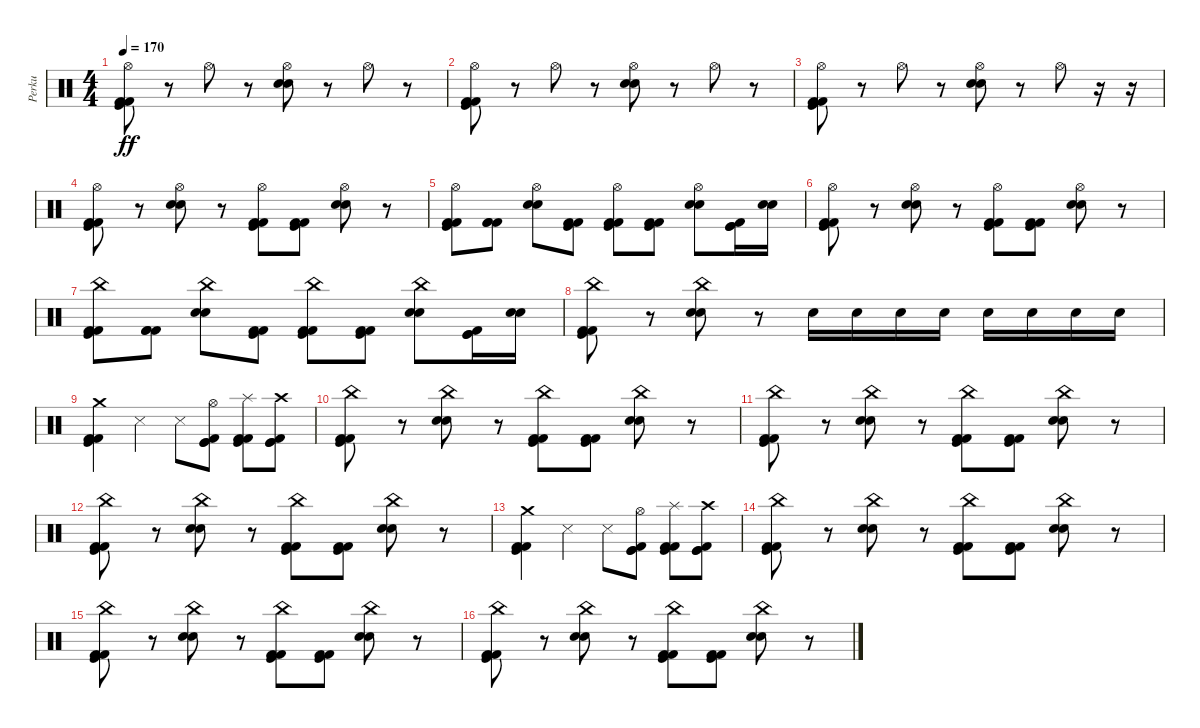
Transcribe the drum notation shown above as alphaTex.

\track ("Perku" "Perku") {instrument percussion}
\staff {score}
\articulation defaults
\ts (4 4)
\tempo 170
\clef neutral
\ks c
("Hi-Hat (open)" "Kick (hit) 2" "Kick (hit) 2" "Kick (hit)").8{dy ff} r.8 "Hi-Hat (open)".8 r.8 ("Hi-Hat (open)" "Electric Snare (hit)" "Electric Snare (hit)").8 r.8 "Hi-Hat (open)".8 r.8 |
("Hi-Hat (open)" "Kick (hit) 2" "Kick (hit) 2" "Kick (hit)").8 r.8 "Hi-Hat (open)".8 r.8 ("Hi-Hat (open)" "Electric Snare (hit)" "Electric Snare (hit)").8 r.8 "Hi-Hat (open)".8 r.8 |
("Hi-Hat (open)" "Kick (hit) 2" "Kick (hit) 2" "Kick (hit)").8 r.8 "Hi-Hat (open)".8 r.8 ("Hi-Hat (open)" "Electric Snare (hit)" "Electric Snare (hit)").8 r.8 "Hi-Hat (open)".8 r.16 r.16 |
("Hi-Hat (open)" "Kick (hit) 2" "Kick (hit) 2" "Kick (hit)").8 r.8 ("Hi-Hat (open)" "Electric Snare (hit)" "Electric Snare (hit)").8 r.8 ("Hi-Hat (open)" "Kick (hit) 2" "Kick (hit) 2" "Kick (hit)").8 ("Kick (hit)" "Kick (hit) 2" "Kick (hit) 2").8 ("Hi-Hat (open)" "Electric Snare (hit)" "Electric Snare (hit)").8 r.8 |
("Hi-Hat (open)" "Kick (hit) 2" "Kick (hit) 2" "Kick (hit)").8 ("Kick (hit) 2" "Kick (hit) 2" "Kick (hit) 2").8 ("Hi-Hat (open)" "Electric Snare (hit)" "Electric Snare (hit)").8 ("Kick (hit) 2" "Kick (hit) 2" "Kick (hit)").8 ("Hi-Hat (open)" "Kick (hit) 2" "Kick (hit) 2" "Kick (hit)").8 ("Kick (hit)" "Kick (hit) 2" "Kick (hit) 2").8 ("Hi-Hat (open)" "Electric Snare (hit)" "Electric Snare (hit)").8 ("Kick (hit)" "Kick (hit) 2" "Kick (hit)").16 ("Electric Snare (hit)" "Electric Snare (hit)").16 |
("Hi-Hat (open)" "Kick (hit) 2" "Kick (hit) 2" "Kick (hit)").8 r.8 ("Hi-Hat (open)" "Electric Snare (hit)" "Electric Snare (hit)").8 r.8 ("Hi-Hat (open)" "Kick (hit) 2" "Kick (hit) 2" "Kick (hit)").8 ("Kick (hit)" "Kick (hit) 2" "Kick (hit) 2").8 ("Hi-Hat (open)" "Electric Snare (hit)" "Electric Snare (hit)").8 r.8 |
("China (hit)" "Kick (hit) 2" "Kick (hit) 2" "Kick (hit)").8 ("Kick (hit) 2" "Kick (hit) 2" "Kick (hit) 2").8 ("China (hit)" "Electric Snare (hit)" "Electric Snare (hit)").8 ("Kick (hit) 2" "Kick (hit) 2" "Kick (hit)").8 ("China (hit)" "Kick (hit) 2" "Kick (hit) 2" "Kick (hit)").8 ("Kick (hit)" "Kick (hit) 2" "Kick (hit) 2").8 ("China (hit)" "Electric Snare (hit)" "Electric Snare (hit)").8 ("Kick (hit)" "Kick (hit) 2" "Kick (hit)").16 ("Electric Snare (hit)" "Electric Snare (hit)").16 |
("China (hit)" "Kick (hit) 2" "Kick (hit) 2" "Kick (hit)").8 r.8 ("China (hit)" "Electric Snare (hit)" "Electric Snare (hit)").8 r.8 "Electric Snare (hit)".16 "Electric Snare (hit)".16 "Electric Snare (hit)".16 "Electric Snare (hit)".16 "Electric Snare (hit)".16 "Electric Snare (hit)".16 "Electric Snare (hit)".16 "Electric Snare (hit)".16 |
("Crash medium (hit)" "Kick (hit)" "Kick (hit) 2" "Kick (hit) 2").4 "Snare (side stick) 3".4 "Snare (side stick) 3".8 ("Hi-Hat (open)" "Kick (hit)" "Kick (hit)" "Kick (hit) 2").8 ("Splash (hit)" "Kick (hit) 2" "Kick (hit)" "Kick (hit) 2").8 ("Crash high (hit)" "Kick (hit)" "Kick (hit) 2" "Kick (hit)").8 |
("China (hit)" "Kick (hit) 2" "Kick (hit) 2" "Kick (hit)").8 r.8 ("China (hit)" "Electric Snare (hit)" "Electric Snare (hit)").8 r.8 ("China (hit)" "Kick (hit) 2" "Kick (hit) 2" "Kick (hit)").8 ("Kick (hit)" "Kick (hit) 2" "Kick (hit) 2").8 ("China (hit)" "Electric Snare (hit)" "Electric Snare (hit)").8 r.8 |
("China (hit)" "Kick (hit) 2" "Kick (hit) 2" "Kick (hit)").8 r.8 ("China (hit)" "Electric Snare (hit)" "Electric Snare (hit)").8 r.8 ("China (hit)" "Kick (hit) 2" "Kick (hit) 2" "Kick (hit)").8 ("Kick (hit)" "Kick (hit) 2" "Kick (hit) 2").8 ("China (hit)" "Electric Snare (hit)" "Electric Snare (hit)").8 r.8 |
("China (hit)" "Kick (hit) 2" "Kick (hit) 2" "Kick (hit)").8 r.8 ("China (hit)" "Electric Snare (hit)" "Electric Snare (hit)").8 r.8 ("China (hit)" "Kick (hit) 2" "Kick (hit) 2" "Kick (hit)").8 ("Kick (hit)" "Kick (hit) 2" "Kick (hit) 2").8 ("China (hit)" "Electric Snare (hit)" "Electric Snare (hit)").8 r.8 |
("Crash medium (hit)" "Kick (hit)" "Kick (hit) 2" "Kick (hit) 2").4 "Snare (side stick) 3".4 "Snare (side stick) 3".8 ("Hi-Hat (open)" "Kick (hit)" "Kick (hit)" "Kick (hit) 2").8 ("Splash (hit)" "Kick (hit) 2" "Kick (hit)" "Kick (hit) 2").8 ("Crash high (hit)" "Kick (hit)" "Kick (hit) 2" "Kick (hit)").8 |
("China (hit)" "Kick (hit) 2" "Kick (hit) 2" "Kick (hit)").8 r.8 ("China (hit)" "Electric Snare (hit)" "Electric Snare (hit)").8 r.8 ("China (hit)" "Kick (hit) 2" "Kick (hit) 2" "Kick (hit)").8 ("Kick (hit)" "Kick (hit) 2" "Kick (hit) 2").8 ("China (hit)" "Electric Snare (hit)" "Electric Snare (hit)").8 r.8 |
("China (hit)" "Kick (hit) 2" "Kick (hit) 2" "Kick (hit)").8 r.8 ("China (hit)" "Electric Snare (hit)" "Electric Snare (hit)").8 r.8 ("China (hit)" "Kick (hit) 2" "Kick (hit) 2" "Kick (hit)").8 ("Kick (hit)" "Kick (hit) 2" "Kick (hit) 2").8 ("China (hit)" "Electric Snare (hit)" "Electric Snare (hit)").8 r.8 |
("China (hit)" "Kick (hit) 2" "Kick (hit) 2" "Kick (hit)").8 r.8 ("China (hit)" "Electric Snare (hit)" "Electric Snare (hit)").8 r.8 ("China (hit)" "Kick (hit) 2" "Kick (hit) 2" "Kick (hit)").8 ("Kick (hit)" "Kick (hit) 2" "Kick (hit) 2").8 ("China (hit)" "Electric Snare (hit)" "Electric Snare (hit)").8 r.8
